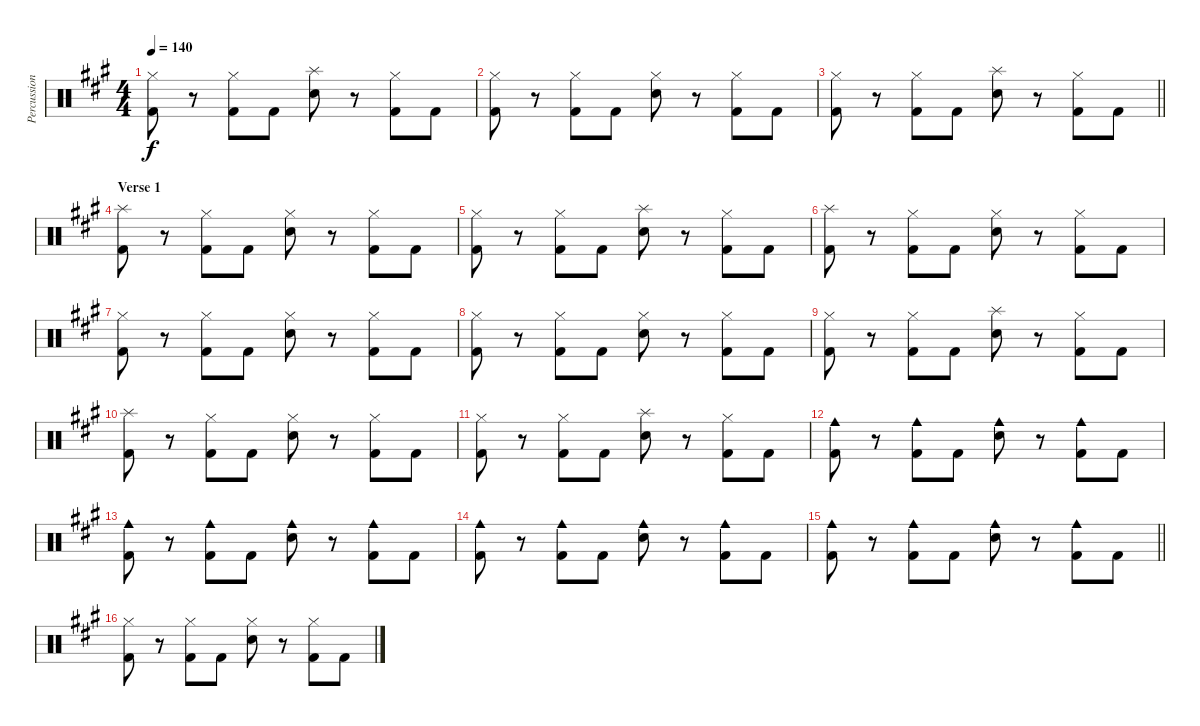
\track ("Percussion" "Percussion") {instrument percussion}
\staff {score}
\articulation defaults
\ts (4 4)
\tempo 140
\clef neutral
\ks a
("Hi-Hat (closed)" "Kick (hit) 2").8{dy f} r.8 ("Hi-Hat (closed)" "Kick (hit) 2").8 "Kick (hit) 2".8 ("Splash (hit)" "Snare (hit) 2").8 r.8 ("Hi-Hat (closed)" "Kick (hit) 2").8 "Kick (hit) 2".8 |
("Hi-Hat (closed)" "Kick (hit) 2").8 r.8 ("Hi-Hat (closed)" "Kick (hit) 2").8 "Kick (hit) 2".8 ("Hi-Hat (closed)" "Snare (hit) 2").8 r.8 ("Hi-Hat (closed)" "Kick (hit) 2").8 "Kick (hit) 2".8 |
\barLineRight lightlight
("Hi-Hat (closed)" "Kick (hit) 2").8 r.8 ("Hi-Hat (closed)" "Kick (hit) 2").8 "Kick (hit) 2".8 ("Splash (hit)" "Snare (hit) 2").8 r.8 ("Hi-Hat (closed)" "Kick (hit) 2").8 "Kick (hit) 2".8 |
\section ("" "Verse 1")
("Splash (hit)" "Kick (hit) 2").8 r.8 ("Hi-Hat (closed)" "Kick (hit) 2").8 "Kick (hit) 2".8 ("Hi-Hat (closed)" "Snare (hit) 2").8 r.8 ("Hi-Hat (closed)" "Kick (hit) 2").8 "Kick (hit) 2".8 |
("Hi-Hat (closed)" "Kick (hit) 2").8 r.8 ("Hi-Hat (closed)" "Kick (hit) 2").8 "Kick (hit) 2".8 ("Splash (hit)" "Snare (hit) 2").8 r.8 ("Hi-Hat (closed)" "Kick (hit) 2").8 "Kick (hit) 2".8 |
("Splash (hit)" "Kick (hit) 2").8 r.8 ("Hi-Hat (closed)" "Kick (hit) 2").8 "Kick (hit) 2".8 ("Hi-Hat (closed)" "Snare (hit) 2").8 r.8 ("Hi-Hat (closed)" "Kick (hit) 2").8 "Kick (hit) 2".8 |
("Hi-Hat (closed)" "Kick (hit) 2").8 r.8 ("Hi-Hat (closed)" "Kick (hit) 2").8 "Kick (hit) 2".8 ("Hi-Hat (closed)" "Snare (hit) 2").8 r.8 ("Hi-Hat (closed)" "Kick (hit) 2").8 "Kick (hit) 2".8 |
("Hi-Hat (closed)" "Kick (hit) 2").8 r.8 ("Hi-Hat (closed)" "Kick (hit) 2").8 "Kick (hit) 2".8 ("Hi-Hat (closed)" "Snare (hit) 2").8 r.8 ("Hi-Hat (closed)" "Kick (hit) 2").8 "Kick (hit) 2".8 |
("Hi-Hat (closed)" "Kick (hit) 2").8 r.8 ("Hi-Hat (closed)" "Kick (hit) 2").8 "Kick (hit) 2".8 ("Splash (hit)" "Snare (hit) 2").8 r.8 ("Hi-Hat (closed)" "Kick (hit) 2").8 "Kick (hit) 2".8 |
("Splash (hit)" "Kick (hit) 2").8 r.8 ("Hi-Hat (closed)" "Kick (hit) 2").8 "Kick (hit) 2".8 ("Hi-Hat (closed)" "Snare (hit) 2").8 r.8 ("Hi-Hat (closed)" "Kick (hit) 2").8 "Kick (hit) 2".8 |
("Hi-Hat (closed)" "Kick (hit) 2").8 r.8 ("Hi-Hat (closed)" "Kick (hit) 2").8 "Kick (hit) 2".8 ("Splash (hit)" "Snare (hit) 2").8 r.8 ("Hi-Hat (closed)" "Kick (hit) 2").8 "Kick (hit) 2".8 |
("Cowbell medium (hit)" "Kick (hit) 2").8 r.8 ("Cowbell medium (hit)" "Kick (hit) 2").8 "Kick (hit) 2".8 ("Cowbell medium (hit)" "Snare (hit) 2").8 r.8 ("Cowbell medium (hit)" "Kick (hit) 2").8 "Kick (hit) 2".8 |
("Cowbell medium (hit)" "Kick (hit) 2").8 r.8 ("Cowbell medium (hit)" "Kick (hit) 2").8 "Kick (hit) 2".8 ("Cowbell medium (hit)" "Snare (hit) 2").8 r.8 ("Cowbell medium (hit)" "Kick (hit) 2").8 "Kick (hit) 2".8 |
("Cowbell medium (hit)" "Kick (hit) 2").8 r.8 ("Cowbell medium (hit)" "Kick (hit) 2").8 "Kick (hit) 2".8 ("Cowbell medium (hit)" "Snare (hit) 2").8 r.8 ("Cowbell medium (hit)" "Kick (hit) 2").8 "Kick (hit) 2".8 |
\barLineRight lightlight
("Cowbell medium (hit)" "Kick (hit) 2").8 r.8 ("Cowbell medium (hit)" "Kick (hit) 2").8 "Kick (hit) 2".8 ("Cowbell medium (hit)" "Snare (hit) 2").8 r.8 ("Cowbell medium (hit)" "Kick (hit) 2").8 "Kick (hit) 2".8 |
("Hi-Hat (closed)" "Kick (hit) 2").8 r.8 ("Hi-Hat (closed)" "Kick (hit) 2").8 "Kick (hit) 2".8 ("Hi-Hat (closed)" "Snare (hit) 2").8 r.8 ("Hi-Hat (closed)" "Kick (hit) 2").8 "Kick (hit) 2".8
